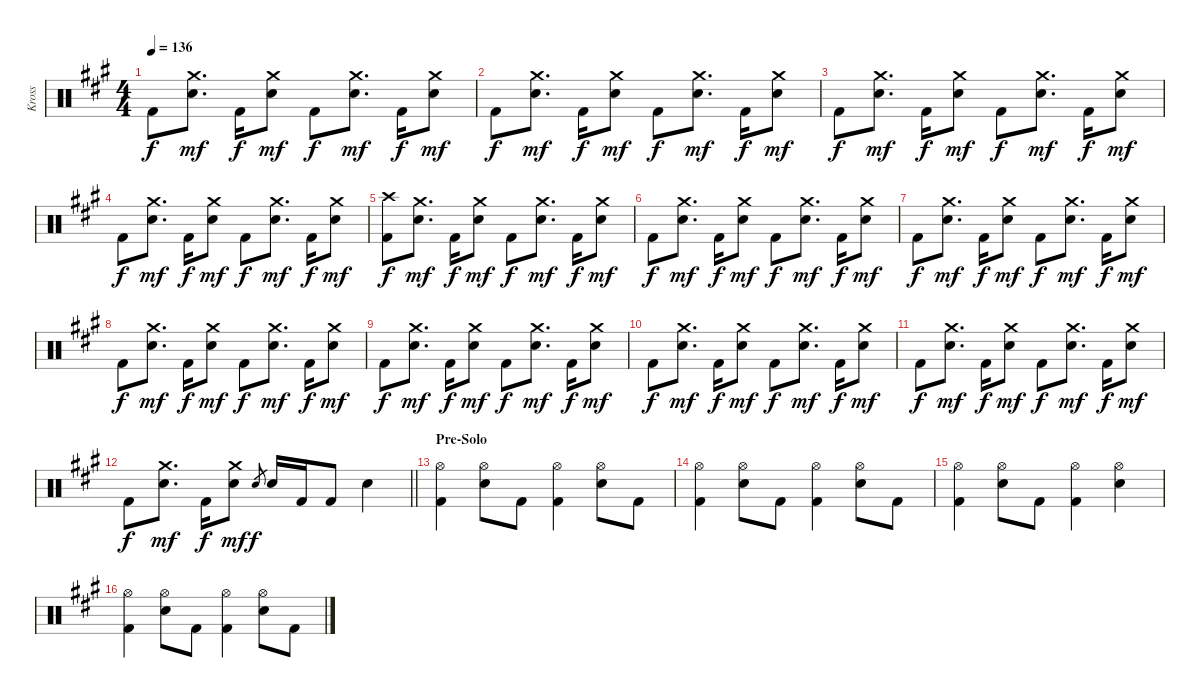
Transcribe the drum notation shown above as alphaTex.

\track ("Kross" "Kross") {instrument percussion}
\staff {score}
\articulation defaults
\ts (4 4)
\tempo 136
\clef neutral
\ks a "Kick (hit) 2".8{dy f}
("Crash medium (hit)" "Snare (hit) 2").8{d dy mf} "Kick (hit) 2".16{dy f} ("Crash medium (hit)" "Snare (hit) 2").8{dy mf} "Kick (hit) 2".8{dy f} ("Crash medium (hit)" "Snare (hit) 2").8{d dy mf} "Kick (hit) 2".16{dy f} ("Crash medium (hit)" "Snare (hit) 2").8{dy mf} |
"Kick (hit) 2".8{dy f} ("Crash medium (hit)" "Snare (hit) 2").8{d dy mf} "Kick (hit) 2".16{dy f} ("Crash medium (hit)" "Snare (hit) 2").8{dy mf} "Kick (hit) 2".8{dy f} ("Crash medium (hit)" "Snare (hit) 2").8{d dy mf} "Kick (hit) 2".16{dy f} ("Crash medium (hit)" "Snare (hit) 2").8{dy mf} |
"Kick (hit) 2".8{dy f} ("Crash medium (hit)" "Snare (hit) 2").8{d dy mf} "Kick (hit) 2".16{dy f} ("Crash medium (hit)" "Snare (hit) 2").8{dy mf} "Kick (hit) 2".8{dy f} ("Crash medium (hit)" "Snare (hit) 2").8{d dy mf} "Kick (hit) 2".16{dy f} ("Crash medium (hit)" "Snare (hit) 2").8{dy mf} |
"Kick (hit) 2".8{dy f} ("Crash medium (hit)" "Snare (hit) 2").8{d dy mf} "Kick (hit) 2".16{dy f} ("Crash medium (hit)" "Snare (hit) 2").8{dy mf} "Kick (hit) 2".8{dy f} ("Crash medium (hit)" "Snare (hit) 2").8{d dy mf} "Kick (hit) 2".16{dy f} ("Crash medium (hit)" "Snare (hit) 2").8{dy mf} |
("Crash high (hit)" "Kick (hit) 2").8{dy f} ("Crash medium (hit)" "Snare (hit) 2").8{d dy mf} "Kick (hit) 2".16{dy f} ("Crash medium (hit)" "Snare (hit) 2").8{dy mf} "Kick (hit) 2".8{dy f} ("Crash medium (hit)" "Snare (hit) 2").8{d dy mf} "Kick (hit) 2".16{dy f} ("Crash medium (hit)" "Snare (hit) 2").8{dy mf} |
"Kick (hit) 2".8{dy f} ("Crash medium (hit)" "Snare (hit) 2").8{d dy mf} "Kick (hit) 2".16{dy f} ("Crash medium (hit)" "Snare (hit) 2").8{dy mf} "Kick (hit) 2".8{dy f} ("Crash medium (hit)" "Snare (hit) 2").8{d dy mf} "Kick (hit) 2".16{dy f} ("Crash medium (hit)" "Snare (hit) 2").8{dy mf} |
"Kick (hit) 2".8{dy f} ("Crash medium (hit)" "Snare (hit) 2").8{d dy mf} "Kick (hit) 2".16{dy f} ("Crash medium (hit)" "Snare (hit) 2").8{dy mf} "Kick (hit) 2".8{dy f} ("Crash medium (hit)" "Snare (hit) 2").8{d dy mf} "Kick (hit) 2".16{dy f} ("Crash medium (hit)" "Snare (hit) 2").8{dy mf} |
"Kick (hit) 2".8{dy f} ("Crash medium (hit)" "Snare (hit) 2").8{d dy mf} "Kick (hit) 2".16{dy f} ("Crash medium (hit)" "Snare (hit) 2").8{dy mf} "Kick (hit) 2".8{dy f} ("Crash medium (hit)" "Snare (hit) 2").8{d dy mf} "Kick (hit) 2".16{dy f} ("Crash medium (hit)" "Snare (hit) 2").8{dy mf} |
"Kick (hit) 2".8{dy f} ("Crash medium (hit)" "Snare (hit) 2").8{d dy mf} "Kick (hit) 2".16{dy f} ("Crash medium (hit)" "Snare (hit) 2").8{dy mf} "Kick (hit) 2".8{dy f} ("Crash medium (hit)" "Snare (hit) 2").8{d dy mf} "Kick (hit) 2".16{dy f} ("Crash medium (hit)" "Snare (hit) 2").8{dy mf} |
"Kick (hit) 2".8{dy f} ("Crash medium (hit)" "Snare (hit) 2").8{d dy mf} "Kick (hit) 2".16{dy f} ("Crash medium (hit)" "Snare (hit) 2").8{dy mf} "Kick (hit) 2".8{dy f} ("Crash medium (hit)" "Snare (hit) 2").8{d dy mf} "Kick (hit) 2".16{dy f} ("Crash medium (hit)" "Snare (hit) 2").8{dy mf} |
"Kick (hit) 2".8{dy f} ("Crash medium (hit)" "Snare (hit) 2").8{d dy mf} "Kick (hit) 2".16{dy f} ("Crash medium (hit)" "Snare (hit) 2").8{dy mf} "Kick (hit) 2".8{dy f} ("Crash medium (hit)" "Snare (hit) 2").8{d dy mf} "Kick (hit) 2".16{dy f} ("Crash medium (hit)" "Snare (hit) 2").8{dy mf} |
\barLineRight lightlight "Kick (hit) 2".8{dy f}
("Crash medium (hit)" "Snare (hit) 2").8{d dy mf} "Kick (hit) 2".16{dy f} ("Crash medium (hit)" "Snare (hit) 2").8{dy mf} "Snare (hit) 2".8{gr dy f} "Snare (hit) 2".16 "Kick (hit) 2".16 "Kick (hit) 2".8 "Snare (hit) 2".4 |
\section ("" "Pre-Solo")
("Hi-Hat (open)" "Kick (hit) 2").4 ("Hi-Hat (open)" "Electric Snare (hit)").8 "Kick (hit) 2".8 ("Hi-Hat (open)" "Kick (hit) 2").4 ("Hi-Hat (open)" "Electric Snare (hit)").8 "Kick (hit) 2".8 |
("Hi-Hat (open)" "Kick (hit) 2").4 ("Hi-Hat (open)" "Electric Snare (hit)").8 "Kick (hit) 2".8 ("Hi-Hat (open)" "Kick (hit) 2").4 ("Hi-Hat (open)" "Electric Snare (hit)").8 "Kick (hit) 2".8 |
("Hi-Hat (open)" "Kick (hit) 2").4 ("Hi-Hat (open)" "Electric Snare (hit)").8 "Kick (hit) 2".8 ("Hi-Hat (open)" "Kick (hit) 2").4 ("Hi-Hat (open)" "Electric Snare (hit)").4 |
("Hi-Hat (open)" "Kick (hit) 2").4 ("Hi-Hat (open)" "Electric Snare (hit)").8 "Kick (hit) 2".8 ("Hi-Hat (open)" "Kick (hit) 2").4 ("Hi-Hat (open)" "Electric Snare (hit)").8 "Kick (hit) 2".8
